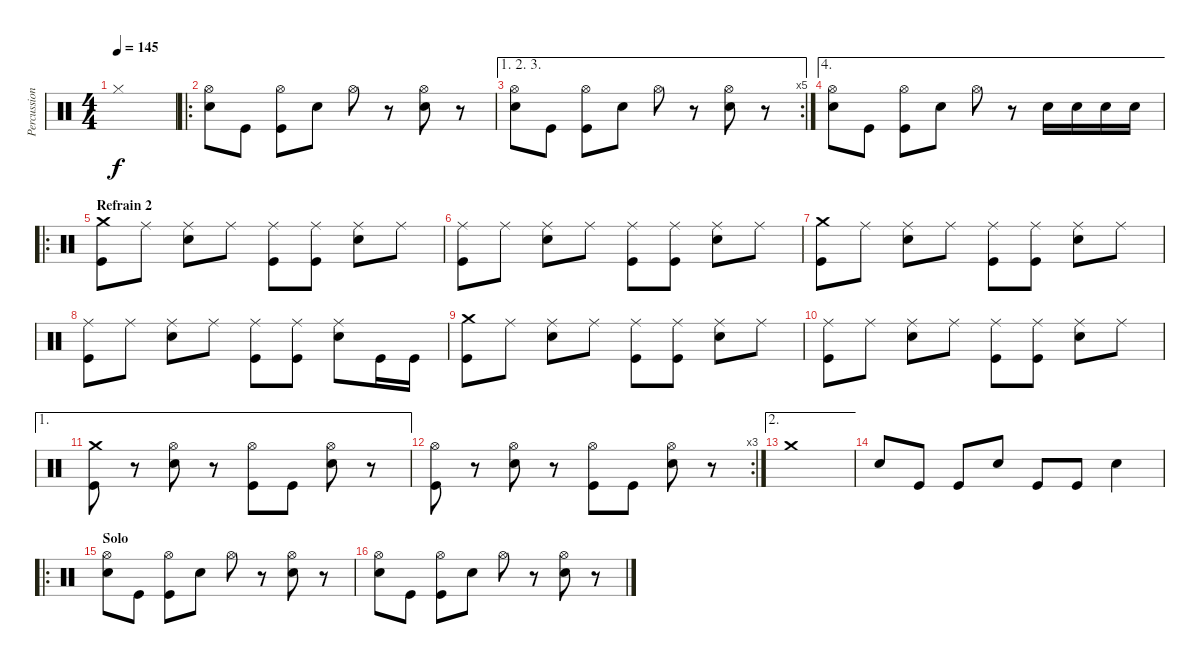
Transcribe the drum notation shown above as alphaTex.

\track ("Percussions" "Percussion") {instrument percussion}
\staff {score}
\articulation defaults
\ts (4 4)
\tempo 145
\clef neutral
\ks c "Hi-Hat (closed)".1{dy f}
|
\ro
("Hi-Hat (open)" "Electric Snare (hit)").8 "Kick (hit)".8 ("Hi-Hat (open)" "Kick (hit)").8 "Electric Snare (hit)".8 "Hi-Hat (open)".8 r.8 ("Hi-Hat (open)" "Electric Snare (hit)").8 r.8 |
\ae (1 2 3)
\rc 5
("Hi-Hat (open)" "Electric Snare (hit)").8 "Kick (hit)".8 ("Hi-Hat (open)" "Kick (hit)").8 "Electric Snare (hit)".8 "Hi-Hat (open)".8 r.8 ("Hi-Hat (open)" "Electric Snare (hit)").8 r.8 |
\ae 4
("Hi-Hat (open)" "Electric Snare (hit)").8 "Kick (hit)".8 ("Hi-Hat (open)" "Kick (hit)").8 "Electric Snare (hit)".8 "Hi-Hat (open)".8 r.8 "Electric Snare (hit)".16 "Electric Snare (hit)".16 "Electric Snare (hit)".16 "Electric Snare (hit)".16 |
\ro
\section ("" "Refrain 2")
("Crash medium (hit)" "Kick (hit)").8 "Ride (middle)".8 ("Ride (middle)" "Electric Snare (hit)").8 "Ride (middle)".8 ("Ride (middle)" "Kick (hit)").8 ("Ride (middle)" "Kick (hit)").8 ("Ride (middle)" "Electric Snare (hit)").8 "Ride (middle)".8 |
("Ride (middle)" "Kick (hit)").8 "Ride (middle)".8 ("Ride (middle)" "Electric Snare (hit)").8 "Ride (middle)".8 ("Ride (middle)" "Kick (hit)").8 ("Ride (middle)" "Kick (hit)").8 ("Ride (middle)" "Electric Snare (hit)").8 "Ride (middle)".8 |
("Crash medium (hit)" "Kick (hit)").8 "Ride (middle)".8 ("Ride (middle)" "Electric Snare (hit)").8 "Ride (middle)".8 ("Ride (middle)" "Kick (hit)").8 ("Ride (middle)" "Kick (hit)").8 ("Ride (middle)" "Electric Snare (hit)").8 "Ride (middle)".8 |
("Ride (middle)" "Kick (hit)").8 "Ride (middle)".8 ("Ride (middle)" "Electric Snare (hit)").8 "Ride (middle)".8 ("Ride (middle)" "Kick (hit)").8 ("Ride (middle)" "Kick (hit)").8 ("Ride (middle)" "Electric Snare (hit)").8 "Kick (hit)".16 "Kick (hit)".16 |
("Crash medium (hit)" "Kick (hit)").8 "Ride (middle)".8 ("Ride (middle)" "Electric Snare (hit)").8 "Ride (middle)".8 ("Ride (middle)" "Kick (hit)").8 ("Ride (middle)" "Kick (hit)").8 ("Ride (middle)" "Electric Snare (hit)").8 "Ride (middle)".8 |
("Ride (middle)" "Kick (hit)").8 "Ride (middle)".8 ("Ride (middle)" "Electric Snare (hit)").8 "Ride (middle)".8 ("Ride (middle)" "Kick (hit)").8 ("Ride (middle)" "Kick (hit)").8 ("Ride (middle)" "Electric Snare (hit)").8 "Ride (middle)".8 |
\ae 1
("Crash medium (hit)" "Kick (hit)").8 r.8 ("Hi-Hat (open)" "Electric Snare (hit)").8 r.8 ("Hi-Hat (open)" "Kick (hit)").8 "Kick (hit)".8 ("Hi-Hat (open)" "Electric Snare (hit)").8 r.8 |
\rc 3
("Hi-Hat (open)" "Kick (hit)").8 r.8 ("Hi-Hat (open)" "Electric Snare (hit)").8 r.8 ("Hi-Hat (open)" "Kick (hit)").8 "Kick (hit)".8 ("Hi-Hat (open)" "Electric Snare (hit)").8 r.8 |
\ae 2 "Crash medium (hit)".1
|
"Electric Snare (hit)".8 "Kick (hit)".8 "Kick (hit)".8 "Electric Snare (hit)".8 "Kick (hit)".8 "Kick (hit)".8 "Electric Snare (hit)".4 |
\ro
\section ("" "Solo")
("Hi-Hat (open)" "Electric Snare (hit)").8 "Kick (hit)".8 ("Hi-Hat (open)" "Kick (hit)").8 "Electric Snare (hit)".8 "Hi-Hat (open)".8 r.8 ("Hi-Hat (open)" "Electric Snare (hit)").8 r.8 |
("Hi-Hat (open)" "Electric Snare (hit)").8 "Kick (hit)".8 ("Hi-Hat (open)" "Kick (hit)").8 "Electric Snare (hit)".8 "Hi-Hat (open)".8 r.8 ("Hi-Hat (open)" "Electric Snare (hit)").8 r.8
